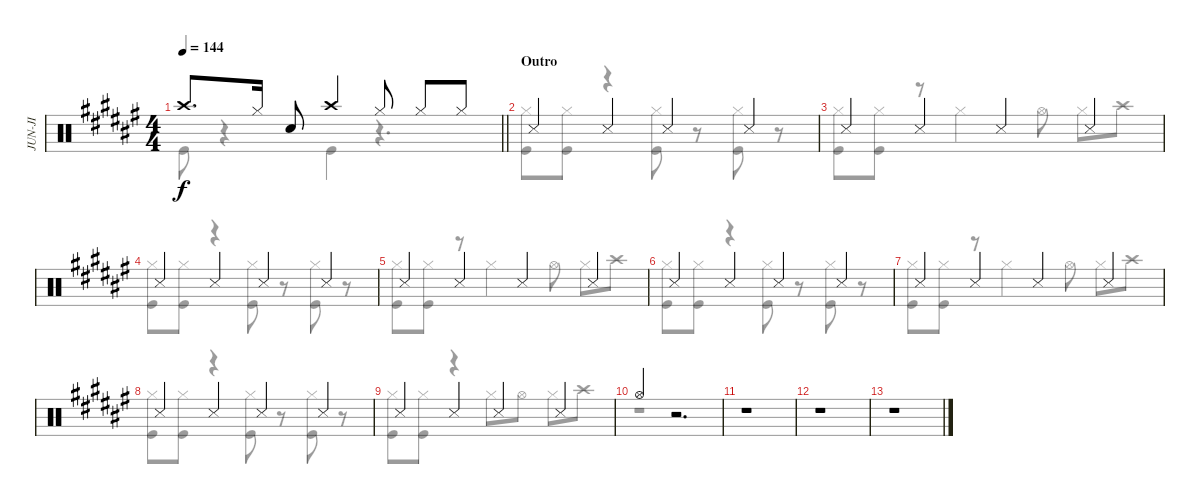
\track ("JUN-JI" "JUN-JI") {instrument percussion}
\staff {score}
\articulation defaults
\voice
\ts (4 4)
\tempo 144
\clef neutral
\barLineRight lightlight
\ks d#minor "Crash high (hit)".8{d dy f} "Hi-Hat (closed)".16 "Snare (hit) 2".8 "Crash high (hit)".4 "Hi-Hat (closed)".8 "Hi-Hat (closed)".8 "Hi-Hat (closed)".8
|
\section ("" "Outro")
"Snare (side stick) 3".4 "Snare (side stick) 3".4 "Snare (side stick) 3".4 "Snare (side stick) 3".4 |
"Snare (side stick) 3".4 "Snare (side stick) 3".4 "Snare (side stick) 3".4 "Snare (side stick) 3".4 |
"Snare (side stick) 3".4 "Snare (side stick) 3".4 "Snare (side stick) 3".4 "Snare (side stick) 3".4 |
"Snare (side stick) 3".4 "Snare (side stick) 3".4 "Snare (side stick) 3".4 "Snare (side stick) 3".4 |
"Snare (side stick) 3".4 "Snare (side stick) 3".4 "Snare (side stick) 3".4 "Snare (side stick) 3".4 |
"Snare (side stick) 3".4 "Snare (side stick) 3".4 "Snare (side stick) 3".4 "Snare (side stick) 3".4 |
"Snare (side stick) 3".4 "Snare (side stick) 3".4 "Snare (side stick) 3".4 "Snare (side stick) 3".4 |
"Snare (side stick) 3".4 "Snare (side stick) 3".4 "Snare (side stick) 3".4 "Snare (side stick) 3".4 |
"Hi-Hat (open)".4 r.2{d} |
r.1 |
r.1 |
r.1
\voice
\clef neutral
\ottava regular
\simile none
\barLineRight lightlight
\ks d#minor "Kick (hit)".8{dy f}
r.4 "Kick (hit)".4 r.4{d} |
("Hi-Hat (closed)" "Kick (hit)").8 ("Hi-Hat (closed)" "Kick (hit)").8 r.4 ("Hi-Hat (closed)" "Kick (hit)").8 r.8 ("Hi-Hat (closed)" "Kick (hit)").8 r.8 |
("Hi-Hat (closed)" "Kick (hit)").8 ("Hi-Hat (closed)" "Kick (hit)").8 r.8 "Hi-Hat (closed)".4 "Hi-Hat (open)".8 "Hi-Hat (closed)".8 "Crash high (hit)".8 |
("Hi-Hat (closed)" "Kick (hit)").8 ("Hi-Hat (closed)" "Kick (hit)").8 r.4 ("Hi-Hat (closed)" "Kick (hit)").8 r.8 ("Hi-Hat (closed)" "Kick (hit)").8 r.8 |
("Hi-Hat (closed)" "Kick (hit)").8 ("Hi-Hat (closed)" "Kick (hit)").8 r.8 "Hi-Hat (closed)".4 "Hi-Hat (open)".8 "Hi-Hat (closed)".8 "Crash high (hit)".8 |
("Hi-Hat (closed)" "Kick (hit)").8 ("Hi-Hat (closed)" "Kick (hit)").8 r.4 ("Hi-Hat (closed)" "Kick (hit)").8 r.8 ("Hi-Hat (closed)" "Kick (hit)").8 r.8 |
("Hi-Hat (closed)" "Kick (hit)").8 ("Hi-Hat (closed)" "Kick (hit)").8 r.8 "Hi-Hat (closed)".4 "Hi-Hat (open)".8 "Hi-Hat (closed)".8 "Crash high (hit)".8 |
("Hi-Hat (closed)" "Kick (hit)").8 ("Hi-Hat (closed)" "Kick (hit)").8 r.4 ("Hi-Hat (closed)" "Kick (hit)").8 r.8 ("Hi-Hat (closed)" "Kick (hit)").8 r.8 |
("Hi-Hat (closed)" "Kick (hit)").8 ("Hi-Hat (closed)" "Kick (hit)").8 r.4 "Hi-Hat (closed)".8 "Hi-Hat (open)".8 "Hi-Hat (closed)".8 "Crash high (hit)".8 |
r.1 |
r.1 |
r.1 |
r.1
